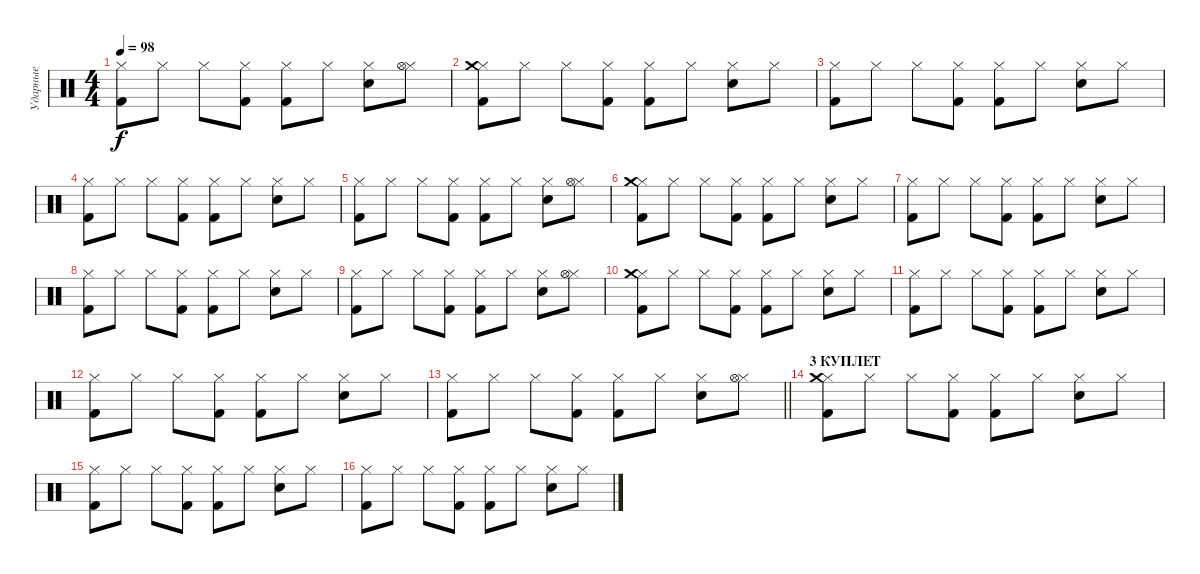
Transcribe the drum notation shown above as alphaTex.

\track ("Ударные" "Ударные") {instrument percussion}
\staff {score}
\articulation defaults
\ts (4 4)
\tempo 98
\clef neutral
\ks c
("Hi-Hat (closed)" "Kick (hit) 2").8{dy f} "Hi-Hat (closed)".8 "Hi-Hat (closed)".8 ("Hi-Hat (closed)" "Kick (hit) 2").8 ("Hi-Hat (closed)" "Kick (hit) 2").8 "Hi-Hat (closed)".8 ("Hi-Hat (closed)" "Snare (hit) 2").8 ("Hi-Hat (closed)" "Hi-Hat (open)").8 |
("Hi-Hat (closed)" "Kick (hit) 2" "Crash medium (hit)").8 "Hi-Hat (closed)".8 "Hi-Hat (closed)".8 ("Hi-Hat (closed)" "Kick (hit) 2").8 ("Hi-Hat (closed)" "Kick (hit) 2").8 "Hi-Hat (closed)".8 ("Hi-Hat (closed)" "Snare (hit) 2").8 "Hi-Hat (closed)".8 |
("Hi-Hat (closed)" "Kick (hit) 2").8 "Hi-Hat (closed)".8 "Hi-Hat (closed)".8 ("Hi-Hat (closed)" "Kick (hit) 2").8 ("Hi-Hat (closed)" "Kick (hit) 2").8 "Hi-Hat (closed)".8 ("Hi-Hat (closed)" "Snare (hit) 2").8 "Hi-Hat (closed)".8 |
("Hi-Hat (closed)" "Kick (hit) 2").8 "Hi-Hat (closed)".8 "Hi-Hat (closed)".8 ("Hi-Hat (closed)" "Kick (hit) 2").8 ("Hi-Hat (closed)" "Kick (hit) 2").8 "Hi-Hat (closed)".8 ("Hi-Hat (closed)" "Snare (hit) 2").8 "Hi-Hat (closed)".8 |
("Hi-Hat (closed)" "Kick (hit) 2").8 "Hi-Hat (closed)".8 "Hi-Hat (closed)".8 ("Hi-Hat (closed)" "Kick (hit) 2").8 ("Hi-Hat (closed)" "Kick (hit) 2").8 "Hi-Hat (closed)".8 ("Hi-Hat (closed)" "Snare (hit) 2").8 ("Hi-Hat (closed)" "Hi-Hat (open)").8 |
("Hi-Hat (closed)" "Kick (hit) 2" "Crash medium (hit)").8 "Hi-Hat (closed)".8 "Hi-Hat (closed)".8 ("Hi-Hat (closed)" "Kick (hit) 2").8 ("Hi-Hat (closed)" "Kick (hit) 2").8 "Hi-Hat (closed)".8 ("Hi-Hat (closed)" "Snare (hit) 2").8 "Hi-Hat (closed)".8 |
("Hi-Hat (closed)" "Kick (hit) 2").8 "Hi-Hat (closed)".8 "Hi-Hat (closed)".8 ("Hi-Hat (closed)" "Kick (hit) 2").8 ("Hi-Hat (closed)" "Kick (hit) 2").8 "Hi-Hat (closed)".8 ("Hi-Hat (closed)" "Snare (hit) 2").8 "Hi-Hat (closed)".8 |
("Hi-Hat (closed)" "Kick (hit) 2").8 "Hi-Hat (closed)".8 "Hi-Hat (closed)".8 ("Hi-Hat (closed)" "Kick (hit) 2").8 ("Hi-Hat (closed)" "Kick (hit) 2").8 "Hi-Hat (closed)".8 ("Hi-Hat (closed)" "Snare (hit) 2").8 "Hi-Hat (closed)".8 |
("Hi-Hat (closed)" "Kick (hit) 2").8 "Hi-Hat (closed)".8 "Hi-Hat (closed)".8 ("Hi-Hat (closed)" "Kick (hit) 2").8 ("Hi-Hat (closed)" "Kick (hit) 2").8 "Hi-Hat (closed)".8 ("Hi-Hat (closed)" "Snare (hit) 2").8 ("Hi-Hat (closed)" "Hi-Hat (open)").8 |
("Hi-Hat (closed)" "Kick (hit) 2" "Crash medium (hit)").8 "Hi-Hat (closed)".8 "Hi-Hat (closed)".8 ("Hi-Hat (closed)" "Kick (hit) 2").8 ("Hi-Hat (closed)" "Kick (hit) 2").8 "Hi-Hat (closed)".8 ("Hi-Hat (closed)" "Snare (hit) 2").8 "Hi-Hat (closed)".8 |
("Hi-Hat (closed)" "Kick (hit) 2").8 "Hi-Hat (closed)".8 "Hi-Hat (closed)".8 ("Hi-Hat (closed)" "Kick (hit) 2").8 ("Hi-Hat (closed)" "Kick (hit) 2").8 "Hi-Hat (closed)".8 ("Hi-Hat (closed)" "Snare (hit) 2").8 "Hi-Hat (closed)".8 |
("Hi-Hat (closed)" "Kick (hit) 2").8 "Hi-Hat (closed)".8 "Hi-Hat (closed)".8 ("Hi-Hat (closed)" "Kick (hit) 2").8 ("Hi-Hat (closed)" "Kick (hit) 2").8 "Hi-Hat (closed)".8 ("Hi-Hat (closed)" "Snare (hit) 2").8 "Hi-Hat (closed)".8 |
\barLineRight lightlight
("Hi-Hat (closed)" "Kick (hit) 2").8 "Hi-Hat (closed)".8 "Hi-Hat (closed)".8 ("Hi-Hat (closed)" "Kick (hit) 2").8 ("Hi-Hat (closed)" "Kick (hit) 2").8 "Hi-Hat (closed)".8 ("Hi-Hat (closed)" "Snare (hit) 2").8 ("Hi-Hat (closed)" "Hi-Hat (open)").8 |
\section ("" "3 КУПЛЕТ")
("Hi-Hat (closed)" "Kick (hit) 2" "Crash medium (hit)").8 "Hi-Hat (closed)".8 "Hi-Hat (closed)".8 ("Hi-Hat (closed)" "Kick (hit) 2").8 ("Hi-Hat (closed)" "Kick (hit) 2").8 "Hi-Hat (closed)".8 ("Hi-Hat (closed)" "Snare (hit) 2").8 "Hi-Hat (closed)".8 |
("Hi-Hat (closed)" "Kick (hit) 2").8 "Hi-Hat (closed)".8 "Hi-Hat (closed)".8 ("Hi-Hat (closed)" "Kick (hit) 2").8 ("Hi-Hat (closed)" "Kick (hit) 2").8 "Hi-Hat (closed)".8 ("Hi-Hat (closed)" "Snare (hit) 2").8 "Hi-Hat (closed)".8 |
("Hi-Hat (closed)" "Kick (hit) 2").8 "Hi-Hat (closed)".8 "Hi-Hat (closed)".8 ("Hi-Hat (closed)" "Kick (hit) 2").8 ("Hi-Hat (closed)" "Kick (hit) 2").8 "Hi-Hat (closed)".8 ("Hi-Hat (closed)" "Snare (hit) 2").8 "Hi-Hat (closed)".8
